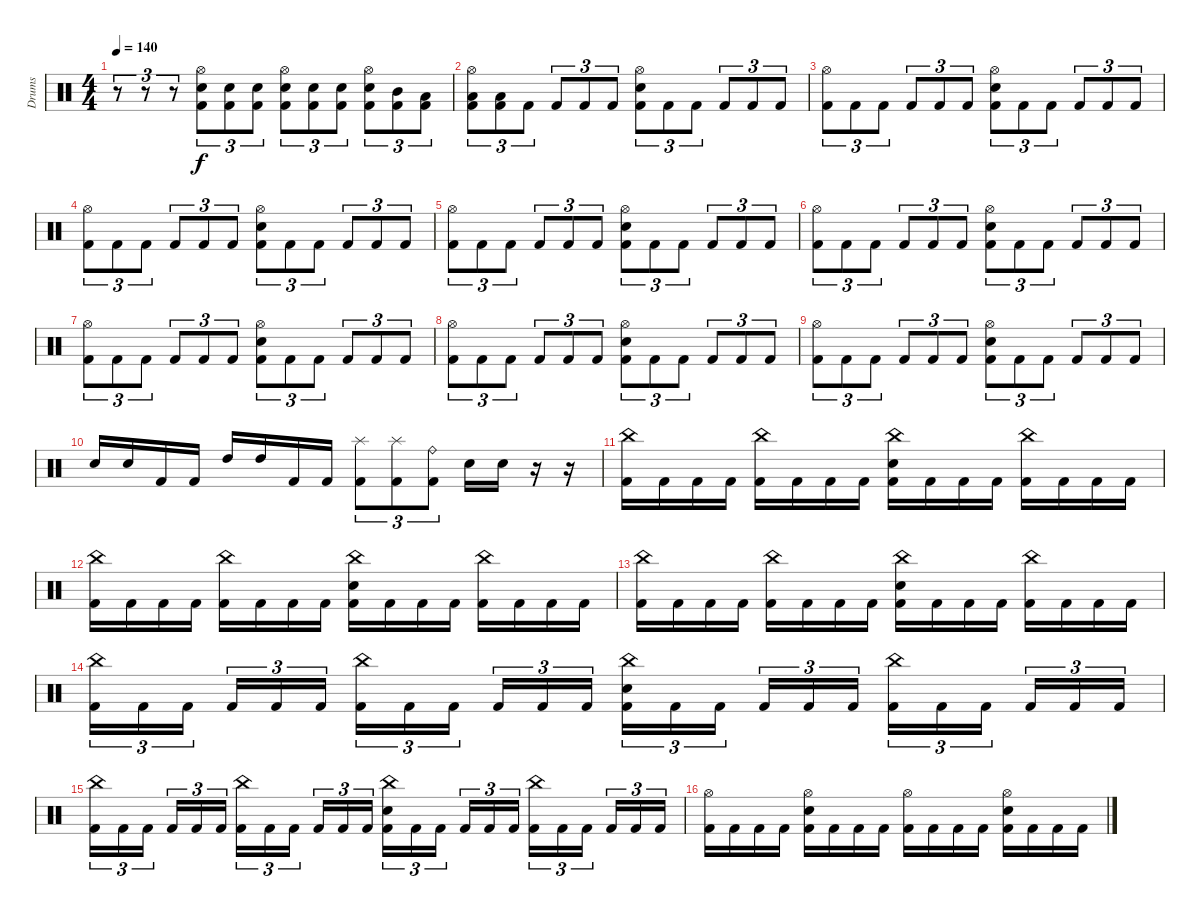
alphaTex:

\track ("Drums" "Drums") {instrument percussion}
\staff {score}
\articulation defaults
\ts (4 4)
\tempo 140
\clef neutral
\ks c
r.8{tu (3 2) dy f} r.8{tu (3 2)} r.8{tu (3 2)} ("Hi-Hat (open)" "Snare (hit) 2" "Kick (hit) 2").8{tu (3 2)} ("Snare (hit) 2" "Kick (hit) 2").8{tu (3 2)} ("Snare (hit) 2" "Kick (hit) 2").8{tu (3 2)} ("Hi-Hat (open)" "Snare (hit) 2" "Kick (hit) 2").8{tu (3 2)} ("Snare (hit) 2" "Kick (hit) 2").8{tu (3 2)} ("Snare (hit) 2" "Kick (hit) 2").8{tu (3 2)} ("Hi-Hat (open)" "Snare (hit) 2" "Kick (hit) 2").8{tu (3 2)} ("Mid Tom (hit)" "Kick (hit) 2").8{tu (3 2)} ("Low Tom (hit)" "Kick (hit) 2").8{tu (3 2)} |
("Hi-Hat (open)" "Low Tom (hit)" "Kick (hit) 2").8{tu (3 2)} ("Low Tom (hit)" "Kick (hit) 2").8{tu (3 2)} "Kick (hit) 2".8{tu (3 2)} "Kick (hit) 2".8{tu (3 2)} "Kick (hit) 2".8{tu (3 2)} "Kick (hit) 2".8{tu (3 2)} ("Hi-Hat (open)" "Snare (hit) 2" "Kick (hit) 2").8{tu (3 2)} "Kick (hit) 2".8{tu (3 2)} "Kick (hit) 2".8{tu (3 2)} "Kick (hit) 2".8{tu (3 2)} "Kick (hit) 2".8{tu (3 2)} "Kick (hit) 2".8{tu (3 2)} |
("Hi-Hat (open)" "Kick (hit) 2").8{tu (3 2)} "Kick (hit) 2".8{tu (3 2)} "Kick (hit) 2".8{tu (3 2)} "Kick (hit) 2".8{tu (3 2)} "Kick (hit) 2".8{tu (3 2)} "Kick (hit) 2".8{tu (3 2)} ("Hi-Hat (open)" "Snare (hit) 2" "Kick (hit) 2").8{tu (3 2)} "Kick (hit) 2".8{tu (3 2)} "Kick (hit) 2".8{tu (3 2)} "Kick (hit) 2".8{tu (3 2)} "Kick (hit) 2".8{tu (3 2)} "Kick (hit) 2".8{tu (3 2)} |
("Hi-Hat (open)" "Kick (hit) 2").8{tu (3 2)} "Kick (hit) 2".8{tu (3 2)} "Kick (hit) 2".8{tu (3 2)} "Kick (hit) 2".8{tu (3 2)} "Kick (hit) 2".8{tu (3 2)} "Kick (hit) 2".8{tu (3 2)} ("Hi-Hat (open)" "Snare (hit) 2" "Kick (hit) 2").8{tu (3 2)} "Kick (hit) 2".8{tu (3 2)} "Kick (hit) 2".8{tu (3 2)} "Kick (hit) 2".8{tu (3 2)} "Kick (hit) 2".8{tu (3 2)} "Kick (hit) 2".8{tu (3 2)} |
("Hi-Hat (open)" "Kick (hit) 2").8{tu (3 2)} "Kick (hit) 2".8{tu (3 2)} "Kick (hit) 2".8{tu (3 2)} "Kick (hit) 2".8{tu (3 2)} "Kick (hit) 2".8{tu (3 2)} "Kick (hit) 2".8{tu (3 2)} ("Hi-Hat (open)" "Snare (hit) 2" "Kick (hit) 2").8{tu (3 2)} "Kick (hit) 2".8{tu (3 2)} "Kick (hit) 2".8{tu (3 2)} "Kick (hit) 2".8{tu (3 2)} "Kick (hit) 2".8{tu (3 2)} "Kick (hit) 2".8{tu (3 2)} |
("Hi-Hat (open)" "Kick (hit) 2").8{tu (3 2)} "Kick (hit) 2".8{tu (3 2)} "Kick (hit) 2".8{tu (3 2)} "Kick (hit) 2".8{tu (3 2)} "Kick (hit) 2".8{tu (3 2)} "Kick (hit) 2".8{tu (3 2)} ("Hi-Hat (open)" "Snare (hit) 2" "Kick (hit) 2").8{tu (3 2)} "Kick (hit) 2".8{tu (3 2)} "Kick (hit) 2".8{tu (3 2)} "Kick (hit) 2".8{tu (3 2)} "Kick (hit) 2".8{tu (3 2)} "Kick (hit) 2".8{tu (3 2)} |
("Hi-Hat (open)" "Kick (hit) 2").8{tu (3 2)} "Kick (hit) 2".8{tu (3 2)} "Kick (hit) 2".8{tu (3 2)} "Kick (hit) 2".8{tu (3 2)} "Kick (hit) 2".8{tu (3 2)} "Kick (hit) 2".8{tu (3 2)} ("Hi-Hat (open)" "Snare (hit) 2" "Kick (hit) 2").8{tu (3 2)} "Kick (hit) 2".8{tu (3 2)} "Kick (hit) 2".8{tu (3 2)} "Kick (hit) 2".8{tu (3 2)} "Kick (hit) 2".8{tu (3 2)} "Kick (hit) 2".8{tu (3 2)} |
("Hi-Hat (open)" "Kick (hit) 2").8{tu (3 2)} "Kick (hit) 2".8{tu (3 2)} "Kick (hit) 2".8{tu (3 2)} "Kick (hit) 2".8{tu (3 2)} "Kick (hit) 2".8{tu (3 2)} "Kick (hit) 2".8{tu (3 2)} ("Hi-Hat (open)" "Snare (hit) 2" "Kick (hit) 2").8{tu (3 2)} "Kick (hit) 2".8{tu (3 2)} "Kick (hit) 2".8{tu (3 2)} "Kick (hit) 2".8{tu (3 2)} "Kick (hit) 2".8{tu (3 2)} "Kick (hit) 2".8{tu (3 2)} |
("Hi-Hat (open)" "Kick (hit) 2").8{tu (3 2)} "Kick (hit) 2".8{tu (3 2)} "Kick (hit) 2".8{tu (3 2)} "Kick (hit) 2".8{tu (3 2)} "Kick (hit) 2".8{tu (3 2)} "Kick (hit) 2".8{tu (3 2)} ("Hi-Hat (open)" "Snare (hit) 2" "Kick (hit) 2").8{tu (3 2)} "Kick (hit) 2".8{tu (3 2)} "Kick (hit) 2".8{tu (3 2)} "Kick (hit) 2".8{tu (3 2)} "Kick (hit) 2".8{tu (3 2)} "Kick (hit) 2".8{tu (3 2)} |
"Snare (hit) 2".16 "Snare (hit) 2".16 "Kick (hit) 2".16 "Kick (hit) 2".16 "High Tom (hit)".16 "High Tom (hit)".16 "Kick (hit) 2".16 "Kick (hit) 2".16 ("Splash (hit)" "Kick (hit) 2").8{tu (3 2)} ("Splash (hit)" "Kick (hit) 2").8{tu (3 2)} ("Ride (bell)" "Kick (hit) 2").8{tu (3 2)} "Snare (hit) 2".16 "Snare (hit) 2".16 r.16 r.16 |
("China (hit)" "Kick (hit) 2").16 "Kick (hit) 2".16 "Kick (hit) 2".16 "Kick (hit) 2".16 ("China (hit)" "Kick (hit) 2").16 "Kick (hit) 2".16 "Kick (hit) 2".16 "Kick (hit) 2".16 ("China (hit)" "Snare (hit) 2" "Kick (hit) 2").16 "Kick (hit) 2".16 "Kick (hit) 2".16 "Kick (hit) 2".16 ("China (hit)" "Kick (hit) 2").16 "Kick (hit) 2".16 "Kick (hit) 2".16 "Kick (hit) 2".16 |
("China (hit)" "Kick (hit) 2").16 "Kick (hit) 2".16 "Kick (hit) 2".16 "Kick (hit) 2".16 ("China (hit)" "Kick (hit) 2").16 "Kick (hit) 2".16 "Kick (hit) 2".16 "Kick (hit) 2".16 ("China (hit)" "Snare (hit) 2" "Kick (hit) 2").16 "Kick (hit) 2".16 "Kick (hit) 2".16 "Kick (hit) 2".16 ("China (hit)" "Kick (hit) 2").16 "Kick (hit) 2".16 "Kick (hit) 2".16 "Kick (hit) 2".16 |
("China (hit)" "Kick (hit) 2").16 "Kick (hit) 2".16 "Kick (hit) 2".16 "Kick (hit) 2".16 ("China (hit)" "Kick (hit) 2").16 "Kick (hit) 2".16 "Kick (hit) 2".16 "Kick (hit) 2".16 ("China (hit)" "Snare (hit) 2" "Kick (hit) 2").16 "Kick (hit) 2".16 "Kick (hit) 2".16 "Kick (hit) 2".16 ("China (hit)" "Kick (hit) 2").16 "Kick (hit) 2".16 "Kick (hit) 2".16 "Kick (hit) 2".16 |
("China (hit)" "Kick (hit) 2").16{tu (3 2)} "Kick (hit) 2".16{tu (3 2)} "Kick (hit) 2".16{tu (3 2) beam splitsecondary} "Kick (hit) 2".16{tu (3 2)} "Kick (hit) 2".16{tu (3 2)} "Kick (hit) 2".16{tu (3 2)} ("China (hit)" "Kick (hit) 2").16{tu (3 2)} "Kick (hit) 2".16{tu (3 2)} "Kick (hit) 2".16{tu (3 2) beam splitsecondary} "Kick (hit) 2".16{tu (3 2)} "Kick (hit) 2".16{tu (3 2)} "Kick (hit) 2".16{tu (3 2)} ("China (hit)" "Snare (hit) 2" "Kick (hit) 2").16{tu (3 2)} "Kick (hit) 2".16{tu (3 2)} "Kick (hit) 2".16{tu (3 2) beam splitsecondary} "Kick (hit) 2".16{tu (3 2)} "Kick (hit) 2".16{tu (3 2)} "Kick (hit) 2".16{tu (3 2)} ("China (hit)" "Kick (hit) 2").16{tu (3 2)} "Kick (hit) 2".16{tu (3 2)} "Kick (hit) 2".16{tu (3 2) beam splitsecondary} "Kick (hit) 2".16{tu (3 2)} "Kick (hit) 2".16{tu (3 2)} "Kick (hit) 2".16{tu (3 2)} |
("China (hit)" "Kick (hit) 2").16{tu (3 2)} "Kick (hit) 2".16{tu (3 2)} "Kick (hit) 2".16{tu (3 2) beam splitsecondary} "Kick (hit) 2".16{tu (3 2)} "Kick (hit) 2".16{tu (3 2)} "Kick (hit) 2".16{tu (3 2)} ("China (hit)" "Kick (hit) 2").16{tu (3 2)} "Kick (hit) 2".16{tu (3 2)} "Kick (hit) 2".16{tu (3 2) beam splitsecondary} "Kick (hit) 2".16{tu (3 2)} "Kick (hit) 2".16{tu (3 2)} "Kick (hit) 2".16{tu (3 2)} ("China (hit)" "Snare (hit) 2" "Kick (hit) 2").16{tu (3 2)} "Kick (hit) 2".16{tu (3 2)} "Kick (hit) 2".16{tu (3 2) beam splitsecondary} "Kick (hit) 2".16{tu (3 2)} "Kick (hit) 2".16{tu (3 2)} "Kick (hit) 2".16{tu (3 2)} ("China (hit)" "Kick (hit) 2").16{tu (3 2)} "Kick (hit) 2".16{tu (3 2)} "Kick (hit) 2".16{tu (3 2) beam splitsecondary} "Kick (hit) 2".16{tu (3 2)} "Kick (hit) 2".16{tu (3 2)} "Kick (hit) 2".16{tu (3 2)} |
("Hi-Hat (open)" "Kick (hit) 2").16 "Kick (hit) 2".16 "Kick (hit) 2".16 "Kick (hit) 2".16 ("Hi-Hat (open)" "Snare (hit) 2" "Kick (hit) 2").16 "Kick (hit) 2".16 "Kick (hit) 2".16 "Kick (hit) 2".16 ("Hi-Hat (open)" "Kick (hit) 2").16 "Kick (hit) 2".16 "Kick (hit) 2".16 "Kick (hit) 2".16 ("Hi-Hat (open)" "Snare (hit) 2" "Kick (hit) 2").16 "Kick (hit) 2".16 "Kick (hit) 2".16 "Kick (hit) 2".16
